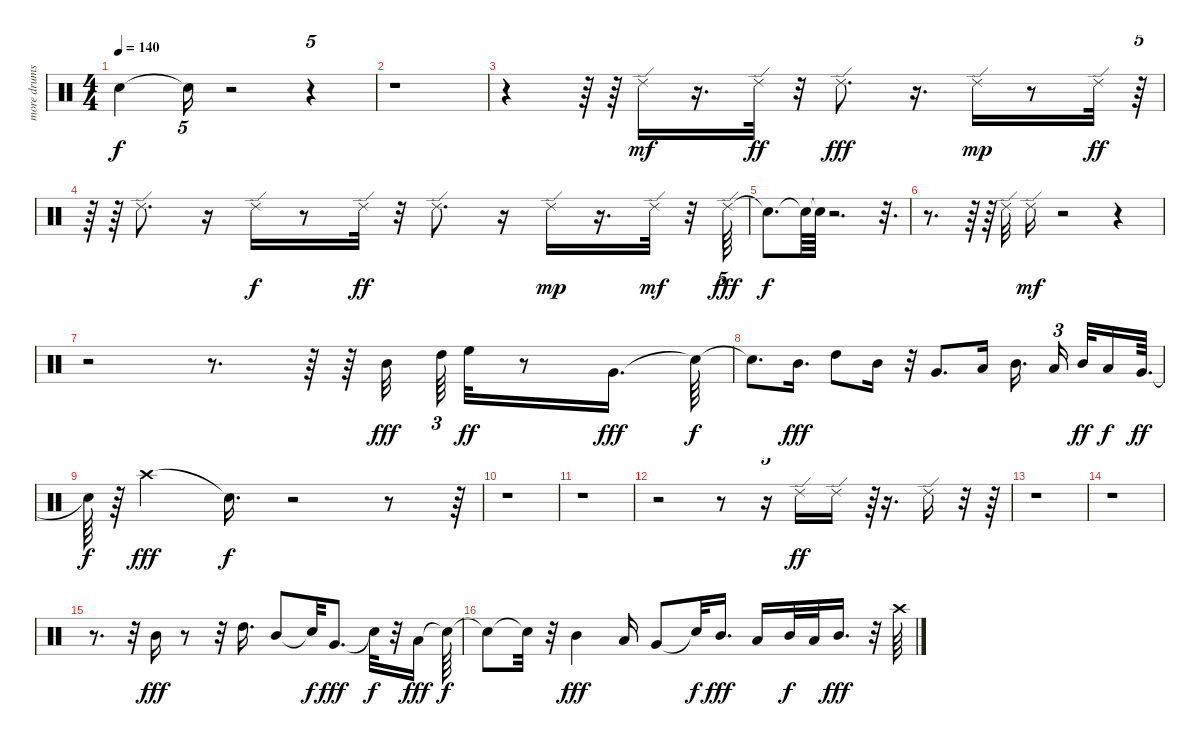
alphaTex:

\track ("more drums" "more drums") {instrument percussion}
\staff {score}
\articulation defaults
\ts (4 4)
\tempo 140
\clef neutral
\ks c "Snare (hit)"{t}.4{dy f} "Snare (hit)"{t}.16{tu (5 4)}
r.2 r.4{tu (5 4)} |
r.1 |
r.4 r.64 r.64 "Ride (edge) 2".16{dy mf} r.16{d} "Ride (edge) 2".32{dy ff} r.32 "Ride (edge) 2".8{d dy fff} r.16{d} "Ride (edge) 2".16{dy mp} r.8 "Ride (edge) 2".32{dy ff} r.64{tu (5 4)} |
r.64 r.64 "Ride (edge) 2".8{d} r.16 "Ride (edge) 2".16{dy f} r.8 "Ride (edge) 2".32{dy ff} r.32 "Ride (edge) 2".8{d} r.16 "Ride (edge) 2".16{dy mp} r.16{d} "Ride (edge) 2".32{dy mf} r.32 "Ride (edge) 2".64{tu (5 4) dy fff} |
"Snare (hit)"{t}.8{d dy f} "Snare (hit)"{t}.64 "Snare (hit)"{t}.64 r.2{d} r.32{d} |
r.8{d} r.64 r.64 "Ride (edge) 2".32 "Ride (edge) 2".16{dy mf} r.2 r.4{tu (5 4)} |
r.2 r.8{d} r.64 r.64 "Mid Tom (hit)".32{dy fff} "High Tom (hit)".64{tu (3 2)} "High Floor Tom (hit)".32{dy ff} r.8 "Very Low Tom (hit)".16{d dy fff} "Snare (hit)"{t}.64{dy f} |
"Snare (hit)"{t}.8{d} "Mid Tom (hit)".16{d dy fff} "High Tom (hit)".8 "Mid Tom (hit)".16 r.32 "Very Low Tom (hit)".8{d} "Low Tom (hit)".16 "Mid Tom (hit)".16{d beam splitsecondary} "Low Tom (hit)".16{tu (3 2) beam splitsecondary} "Mid Tom (hit)".32{dy ff} "Low Tom (hit)".16{dy f} "Very Low Tom (hit)".64{d dy ff} |
"Snare (hit)"{t}.64{dy f} r.64 "Crash high (hit)".4{dy fff} "Snare (hit)"{t}.16{d dy f} r.2 r.8 r.64{tu (5 4)} |
r.1 |
r.1 |
r.2 r.8 r.16{tu (5 4)} "Ride (edge) 2".16{dy ff} "Ride (edge) 2".16 r.64{tu (3 2)} r.16{d} "Ride (edge) 2".16 r.32 r.64 |
r.1 |
r.1 |
r.8{d} r.32 "Mid Tom (hit)".16{dy fff} r.8 r.32 "High Tom (hit)".16{d} "Mid Tom (hit)".8 "Snare (hit)"{t}.32{dy f} "Very Low Tom (hit)".8{d dy fff} "Snare (hit)"{t}.32{dy f} r.32 "Low Tom (hit)".16{dy fff} "Snare (hit)"{t}.64{dy f} |
"Snare (hit)"{t}.8 "Snare (hit)"{t}.32 r.32 "Mid Tom (hit)".4{dy fff} "Low Tom (hit)".16 "Very Low Tom (hit)".8 "Snare (hit)"{t}.32{dy f} "Mid Tom (hit)".16{d dy fff} "Low Tom (hit)".16 "Mid Tom (hit)".32{dy f} "Low Tom (hit)".32 "Mid Tom (hit)".16{d dy fff} r.32 "Crash high (hit)".64
